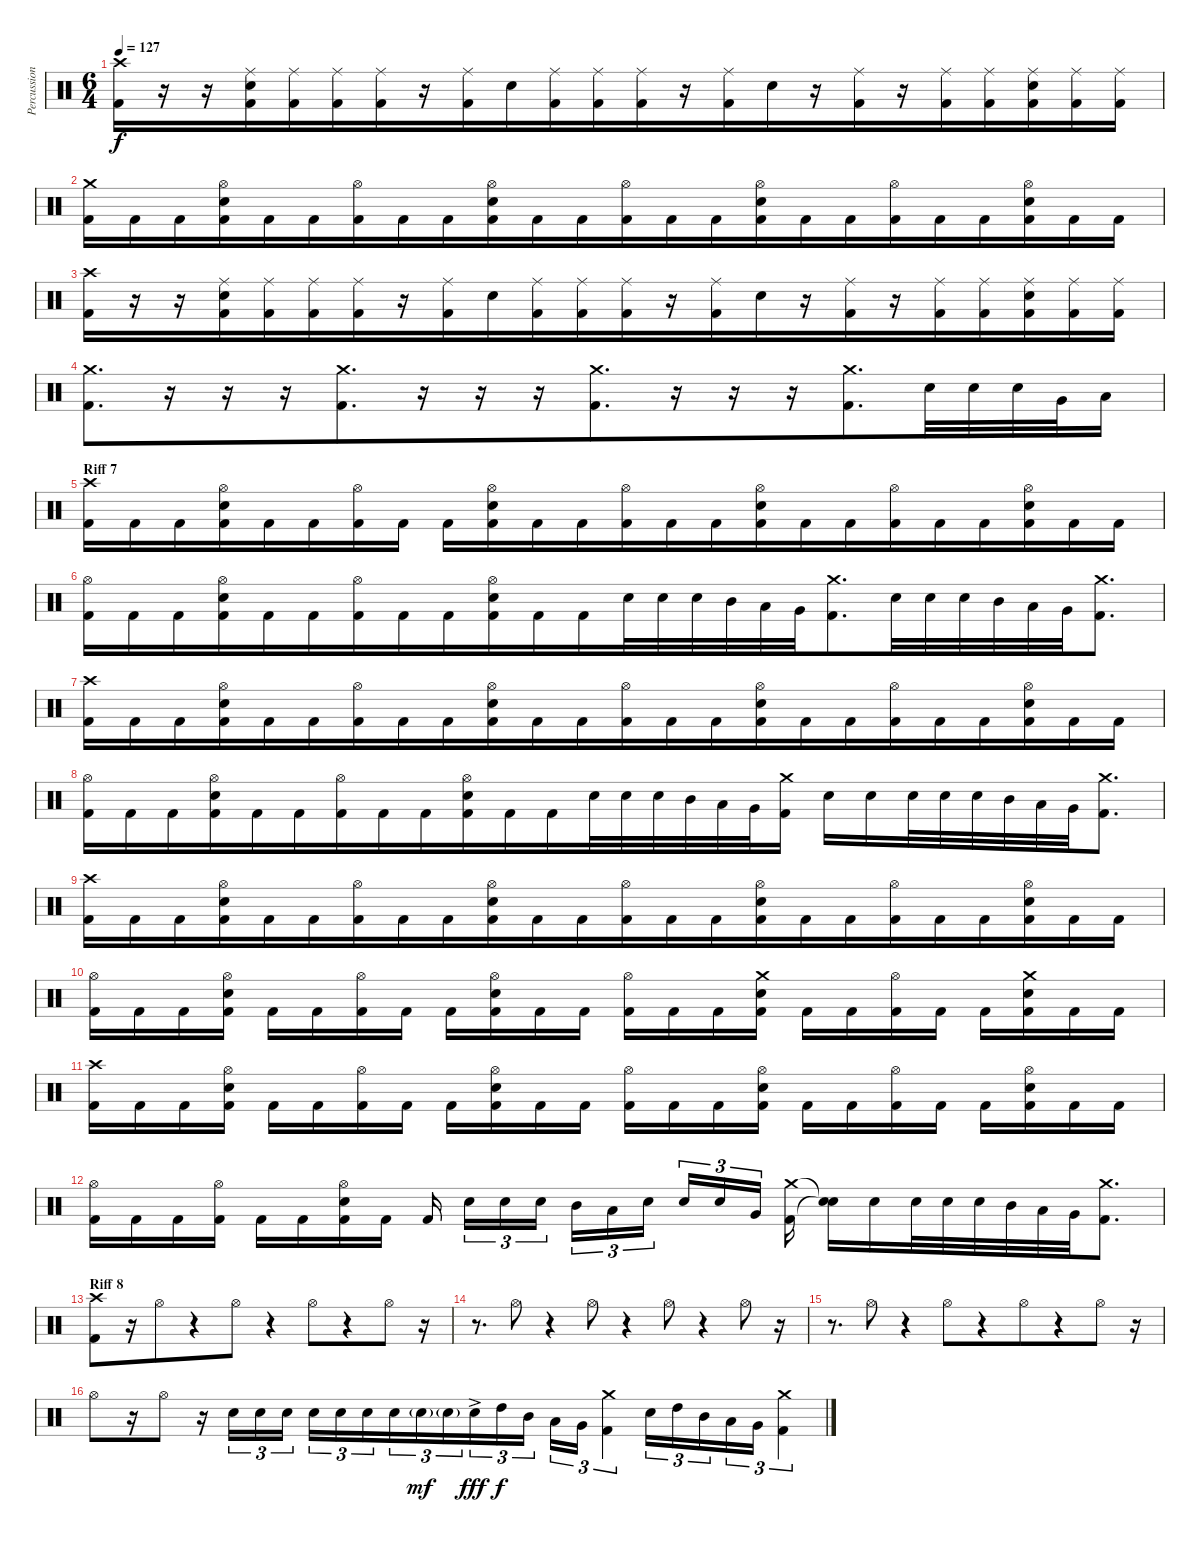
\track ("Percussion" "Percussion") {instrument percussion}
\staff {score}
\articulation defaults
\ts (6 4)
\tempo 127
\clef neutral
\ks c
("Crash high (hit)" "Kick (hit) 2").16{dy f beam merge} r.16{beam merge} r.16{beam merge} ("Ride (middle)" "Electric Snare (hit)" "Kick (hit) 2").16{beam merge} ("Ride (middle)" "Kick (hit) 2").16{beam merge} ("Ride (middle)" "Kick (hit) 2").16{beam merge} ("Ride (middle)" "Kick (hit) 2").16{beam merge} r.16{beam merge} ("Ride (middle)" "Kick (hit) 2").16{beam merge} "Electric Snare (hit)".16{beam merge} ("Ride (middle)" "Kick (hit) 2").16{beam merge} ("Ride (middle)" "Kick (hit) 2").16{beam merge} ("Ride (middle)" "Kick (hit) 2").16{beam merge} r.16{beam merge} ("Ride (middle)" "Kick (hit) 2").16{beam merge} "Electric Snare (hit)".16{beam merge} r.16{beam merge} ("Ride (middle)" "Kick (hit) 2").16{beam merge} r.16{beam merge} ("Ride (middle)" "Kick (hit) 2").16{beam merge} ("Ride (middle)" "Kick (hit) 2").16{beam merge} ("Ride (middle)" "Electric Snare (hit)" "Kick (hit) 2").16{beam merge} ("Ride (middle)" "Kick (hit) 2").16{beam merge} ("Ride (middle)" "Kick (hit) 2").16 |
("Crash medium (hit)" "Kick (hit) 2").16{beam merge} "Kick (hit) 2".16{beam merge} "Kick (hit) 2".16{beam merge} ("Hi-Hat (open)" "Electric Snare (hit)" "Kick (hit) 2").16{beam merge} "Kick (hit) 2".16{beam merge} "Kick (hit) 2".16{beam merge} ("Hi-Hat (open)" "Kick (hit) 2").16{beam merge} "Kick (hit) 2".16{beam merge} "Kick (hit) 2".16{beam merge} ("Hi-Hat (open)" "Electric Snare (hit)" "Kick (hit) 2").16 "Kick (hit) 2".16{beam merge} "Kick (hit) 2".16{beam merge} ("Hi-Hat (open)" "Kick (hit) 2").16{beam merge} "Kick (hit) 2".16 "Kick (hit) 2".16{beam merge} ("Hi-Hat (open)" "Electric Snare (hit)" "Kick (hit) 2").16{beam merge} "Kick (hit) 2".16{beam merge} "Kick (hit) 2".16{beam merge} ("Hi-Hat (open)" "Kick (hit) 2").16{beam merge} "Kick (hit) 2".16{beam merge} "Kick (hit) 2".16{beam merge} ("Hi-Hat (open)" "Electric Snare (hit)" "Kick (hit) 2").16{beam merge} "Kick (hit) 2".16{beam merge} "Kick (hit) 2".16 |
("Crash high (hit)" "Kick (hit) 2").16{beam merge} r.16{beam merge} r.16{beam merge} ("Ride (middle)" "Electric Snare (hit)" "Kick (hit) 2").16{beam merge} ("Ride (middle)" "Kick (hit) 2").16 ("Ride (middle)" "Kick (hit) 2").16 ("Ride (middle)" "Kick (hit) 2").16{beam merge} r.16{beam merge} ("Ride (middle)" "Kick (hit) 2").16{beam merge} "Electric Snare (hit)".16{beam merge} ("Ride (middle)" "Kick (hit) 2").16{beam merge} ("Ride (middle)" "Kick (hit) 2").16{beam merge} ("Ride (middle)" "Kick (hit) 2").16 r.16{beam merge} ("Ride (middle)" "Kick (hit) 2").16{beam merge} "Electric Snare (hit)".16{beam merge} r.16{beam merge} ("Ride (middle)" "Kick (hit) 2").16{beam merge} r.16{beam merge} ("Ride (middle)" "Kick (hit) 2").16{beam merge} ("Ride (middle)" "Kick (hit) 2").16{beam merge} ("Ride (middle)" "Electric Snare (hit)" "Kick (hit) 2").16 ("Ride (middle)" "Kick (hit) 2").16{beam merge} ("Ride (middle)" "Kick (hit) 2").16 |
("Crash medium (hit)" "Kick (hit) 2").8{d beam merge} r.16{beam merge} r.16{beam merge} r.16{beam merge} ("Crash medium (hit)" "Kick (hit) 2").8{d beam merge} r.16{beam merge} r.16 r.16{beam merge} ("Crash medium (hit)" "Kick (hit) 2").8{d beam merge} r.16 r.16{beam merge} r.16{beam merge} ("Crash medium (hit)" "Kick (hit) 2").8{d beam merge} "Electric Snare (hit)".32{beam merge} "Electric Snare (hit)".32{beam merge} "Electric Snare (hit)".32{beam merge} "Very Low Tom (hit)".32{beam merge} "Low Floor Tom (hit)".16 |
\section ("" "Riff 7")
("Crash high (hit)" "Kick (hit) 2").16{beam merge} "Kick (hit) 2".16{beam merge} "Kick (hit) 2".16{beam merge} ("Hi-Hat (open)" "Electric Snare (hit)" "Kick (hit) 2").16{beam merge} "Kick (hit) 2".16{beam merge} "Kick (hit) 2".16{beam merge} ("Hi-Hat (open)" "Kick (hit) 2").16{beam merge} "Kick (hit) 2".16 "Kick (hit) 2".16{beam merge} ("Hi-Hat (open)" "Electric Snare (hit)" "Kick (hit) 2").16{beam merge} "Kick (hit) 2".16{beam merge} "Kick (hit) 2".16{beam merge} ("Hi-Hat (open)" "Kick (hit) 2").16{beam merge} "Kick (hit) 2".16{beam merge} "Kick (hit) 2".16{beam merge} ("Hi-Hat (open)" "Electric Snare (hit)" "Kick (hit) 2").16{beam merge} "Kick (hit) 2".16{beam merge} "Kick (hit) 2".16{beam merge} ("Hi-Hat (open)" "Kick (hit) 2").16{beam merge} "Kick (hit) 2".16{beam merge} "Kick (hit) 2".16{beam merge} ("Hi-Hat (open)" "Electric Snare (hit)" "Kick (hit) 2").16{beam merge} "Kick (hit) 2".16{beam merge} "Kick (hit) 2".16 |
("Hi-Hat (open)" "Kick (hit) 2").16{beam merge} "Kick (hit) 2".16{beam merge} "Kick (hit) 2".16{beam merge} ("Hi-Hat (open)" "Electric Snare (hit)" "Kick (hit) 2").16{beam merge} "Kick (hit) 2".16{beam merge} "Kick (hit) 2".16{beam merge} ("Hi-Hat (open)" "Kick (hit) 2").16{beam merge} "Kick (hit) 2".16{beam merge} "Kick (hit) 2".16{beam merge} ("Hi-Hat (open)" "Electric Snare (hit)" "Kick (hit) 2").16{beam merge} "Kick (hit) 2".16{beam merge} "Kick (hit) 2".16{beam merge} "Electric Snare (hit)".32{beam merge} "Electric Snare (hit)".32{beam merge} "Electric Snare (hit)".32{beam merge} "Mid Tom (hit)".32{beam merge} "Low Tom (hit)".32{beam merge} "Very Low Tom (hit)".32{beam merge} ("Crash medium (hit)" "Kick (hit) 2").8{d beam merge} "Electric Snare (hit)".32{beam merge} "Electric Snare (hit)".32{beam merge} "Electric Snare (hit)".32{beam merge} "Mid Tom (hit)".32{beam merge} "Low Tom (hit)".32{beam merge} "Very Low Tom (hit)".32{beam merge} ("Crash medium (hit)" "Kick (hit) 2").8{d} |
("Crash high (hit)" "Kick (hit) 2").16{beam merge} "Kick (hit) 2".16{beam merge} "Kick (hit) 2".16{beam merge} ("Hi-Hat (open)" "Electric Snare (hit)" "Kick (hit) 2").16{beam merge} "Kick (hit) 2".16{beam merge} "Kick (hit) 2".16{beam merge} ("Hi-Hat (open)" "Kick (hit) 2").16{beam merge} "Kick (hit) 2".16{beam merge} "Kick (hit) 2".16 ("Hi-Hat (open)" "Electric Snare (hit)" "Kick (hit) 2").16{beam merge} "Kick (hit) 2".16{beam merge} "Kick (hit) 2".16{beam merge} ("Hi-Hat (open)" "Kick (hit) 2").16{beam merge} "Kick (hit) 2".16{beam merge} "Kick (hit) 2".16{beam merge} ("Hi-Hat (open)" "Electric Snare (hit)" "Kick (hit) 2").16{beam merge} "Kick (hit) 2".16{beam merge} "Kick (hit) 2".16{beam merge} ("Hi-Hat (open)" "Kick (hit) 2").16{beam merge} "Kick (hit) 2".16{beam merge} "Kick (hit) 2".16{beam merge} ("Hi-Hat (open)" "Electric Snare (hit)" "Kick (hit) 2").16{beam merge} "Kick (hit) 2".16{beam merge} "Kick (hit) 2".16 |
("Hi-Hat (open)" "Kick (hit) 2").16{beam merge} "Kick (hit) 2".16{beam merge} "Kick (hit) 2".16 ("Hi-Hat (open)" "Electric Snare (hit)" "Kick (hit) 2").16{beam merge} "Kick (hit) 2".16{beam merge} "Kick (hit) 2".16{beam merge} ("Hi-Hat (open)" "Kick (hit) 2").16{beam merge} "Kick (hit) 2".16{beam merge} "Kick (hit) 2".16{beam merge} ("Hi-Hat (open)" "Electric Snare (hit)" "Kick (hit) 2").16{beam merge} "Kick (hit) 2".16{beam merge} "Kick (hit) 2".16{beam merge} "Electric Snare (hit)".32{beam merge} "Electric Snare (hit)".32{beam merge} "Electric Snare (hit)".32{beam merge} "Mid Tom (hit)".32{beam merge} "Low Tom (hit)".32{beam merge} "Very Low Tom (hit)".32{beam merge} ("Crash medium (hit)" "Kick (hit) 2").16 "Electric Snare (hit)".16{beam merge} "Electric Snare (hit)".16{beam merge} "Electric Snare (hit)".32{beam merge} "Electric Snare (hit)".32{beam merge} "Electric Snare (hit)".32{beam merge} "Mid Tom (hit)".32{beam merge} "Low Tom (hit)".32{beam merge} "Very Low Tom (hit)".32{beam merge} ("Crash medium (hit)" "Kick (hit) 2").8{d} |
("Crash high (hit)" "Kick (hit) 2").16 "Kick (hit) 2".16{beam merge} "Kick (hit) 2".16{beam merge} ("Hi-Hat (open)" "Electric Snare (hit)" "Kick (hit) 2").16{beam merge} "Kick (hit) 2".16{beam merge} "Kick (hit) 2".16{beam merge} ("Hi-Hat (open)" "Kick (hit) 2").16{beam merge} "Kick (hit) 2".16{beam merge} "Kick (hit) 2".16{beam merge} ("Hi-Hat (open)" "Electric Snare (hit)" "Kick (hit) 2").16{beam merge} "Kick (hit) 2".16{beam merge} "Kick (hit) 2".16{beam merge} ("Hi-Hat (open)" "Kick (hit) 2").16{beam merge} "Kick (hit) 2".16{beam merge} "Kick (hit) 2".16{beam merge} ("Hi-Hat (open)" "Electric Snare (hit)" "Kick (hit) 2").16{beam merge} "Kick (hit) 2".16 "Kick (hit) 2".16{beam merge} ("Hi-Hat (open)" "Kick (hit) 2").16{beam merge} "Kick (hit) 2".16{beam merge} "Kick (hit) 2".16{beam merge} ("Hi-Hat (open)" "Electric Snare (hit)" "Kick (hit) 2").16{beam merge} "Kick (hit) 2".16{beam merge} "Kick (hit) 2".16 |
("Hi-Hat (open)" "Kick (hit) 2").16 "Kick (hit) 2".16 "Kick (hit) 2".16{beam merge} ("Hi-Hat (open)" "Electric Snare (hit)" "Kick (hit) 2").16 "Kick (hit) 2".16 "Kick (hit) 2".16 ("Hi-Hat (open)" "Kick (hit) 2").16 "Kick (hit) 2".16 "Kick (hit) 2".16 ("Hi-Hat (open)" "Electric Snare (hit)" "Kick (hit) 2").16 "Kick (hit) 2".16 "Kick (hit) 2".16 ("Hi-Hat (open)" "Kick (hit) 2").16 "Kick (hit) 2".16 "Kick (hit) 2".16 ("Crash medium (hit)" "Electric Snare (hit)" "Kick (hit) 2").16 "Kick (hit) 2".16 "Kick (hit) 2".16 ("Hi-Hat (open)" "Kick (hit) 2").16 "Kick (hit) 2".16 "Kick (hit) 2".16 ("Crash medium (hit)" "Electric Snare (hit)" "Kick (hit) 2").16 "Kick (hit) 2".16 "Kick (hit) 2".16 |
("Crash high (hit)" "Kick (hit) 2").16 "Kick (hit) 2".16 "Kick (hit) 2".16 ("Hi-Hat (open)" "Electric Snare (hit)" "Kick (hit) 2").16 "Kick (hit) 2".16 "Kick (hit) 2".16{beam merge} ("Hi-Hat (open)" "Kick (hit) 2").16 "Kick (hit) 2".16 "Kick (hit) 2".16 ("Hi-Hat (open)" "Electric Snare (hit)" "Kick (hit) 2").16 "Kick (hit) 2".16 "Kick (hit) 2".16 ("Hi-Hat (open)" "Kick (hit) 2").16 "Kick (hit) 2".16 "Kick (hit) 2".16 ("Hi-Hat (open)" "Electric Snare (hit)" "Kick (hit) 2").16 "Kick (hit) 2".16 "Kick (hit) 2".16{beam merge} ("Hi-Hat (open)" "Kick (hit) 2").16 "Kick (hit) 2".16 "Kick (hit) 2".16 ("Hi-Hat (open)" "Electric Snare (hit)" "Kick (hit) 2").16 "Kick (hit) 2".16 "Kick (hit) 2".16 |
("Hi-Hat (open)" "Kick (hit) 2").16{beam merge} "Kick (hit) 2".16 "Kick (hit) 2".16 ("Hi-Hat (open)" "Kick (hit) 2").16 "Kick (hit) 2".16 "Kick (hit) 2".16 ("Hi-Hat (open)" "Electric Snare (hit)" "Kick (hit) 2").16 "Kick (hit) 2".16 "Kick (hit) 2".16 "Electric Snare (hit)".16{tu (3 2)} "Electric Snare (hit)".16{tu (3 2)} "Electric Snare (hit)".16{tu (3 2)} "Mid Tom (hit)".16{tu (3 2) beam merge} "Low Tom (hit)".16{tu (3 2)} "Electric Snare (hit)".16{tu (3 2)} "Electric Snare (hit)".16{tu (3 2)} "Electric Snare (hit)".16{tu (3 2)} "Very Low Tom (hit)".16{tu (3 2)} ("Crash medium (hit)" "Kick (hit) 2").16 ("Snare (hit)"{t} "Snare (hit)"{t}).16 "Electric Snare (hit)".16 "Electric Snare (hit)".32 "Electric Snare (hit)".32 "Electric Snare (hit)".32 "Mid Tom (hit)".32{beam merge} "Low Tom (hit)".32 "Very Low Tom (hit)".32 ("Crash medium (hit)" "Kick (hit) 2").8{d} |
\section ("" "Riff 8")
("Crash high (hit)" "Kick (hit) 2").8 r.16 "Hi-Hat (open)".8{beam merge} r.4 "Hi-Hat (open)".8 r.4 "Hi-Hat (open)".8{beam merge} r.4 "Hi-Hat (open)".8 r.16 |
r.8{d} "Hi-Hat (open)".8 r.4 "Hi-Hat (open)".8 r.4{beam merge} "Hi-Hat (open)".8 r.4 "Hi-Hat (open)".8{beam merge} r.16 |
r.8{d} "Hi-Hat (open)".8 r.4{beam merge} "Hi-Hat (open)".8{beam merge} r.4 "Hi-Hat (open)".8{beam merge} r.4{beam merge} "Hi-Hat (open)".8 r.16 |
"Hi-Hat (open)".8 r.16 "Hi-Hat (open)".8 r.16{beam merge} "Electric Snare (hit)".16{tu (3 2)} "Electric Snare (hit)".16{tu (3 2)} "Electric Snare (hit)".16{tu (3 2)} "Electric Snare (hit)".16{tu (3 2)} "Electric Snare (hit)".16{tu (3 2)} "Electric Snare (hit)".16{tu (3 2) beam merge} "Electric Snare (hit)".16{tu (3 2)} "Electric Snare (hit)"{g}.16{tu (3 2) dy mf} "Electric Snare (hit)"{g}.16{tu (3 2) beam merge} "Electric Snare (hit)"{ac}.16{tu (3 2) dy fff} "High Tom (hit)".16{tu (3 2) dy f} "Mid Tom (hit)".16{tu (3 2)} "Low Tom (hit)".16{tu (3 2)} "Very Low Tom (hit)".16{tu (3 2) beam merge} ("Crash medium (hit)" "Kick (hit) 2").4{tu (3 2)} "Electric Snare (hit)".16{tu (3 2)} "High Tom (hit)".16{tu (3 2)} "Mid Tom (hit)".16{tu (3 2) beam merge} "Low Tom (hit)".16{tu (3 2)} "Very Low Tom (hit)".16{tu (3 2)} ("Crash medium (hit)" "Kick (hit) 2").4{tu (3 2)}
